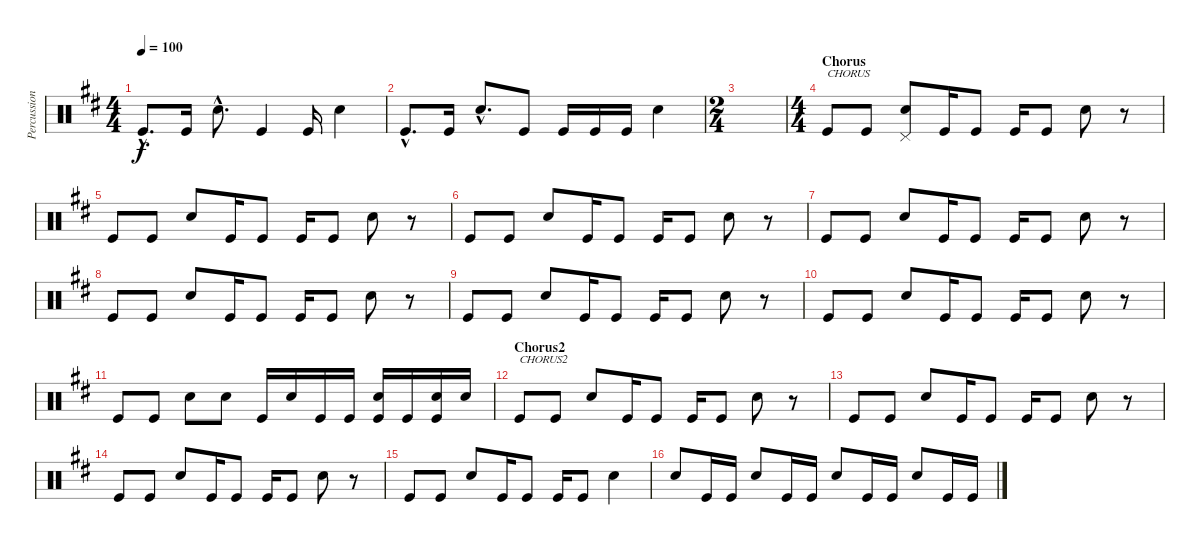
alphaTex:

\track ("Percussion" "Percussion") {instrument percussion}
\staff {score}
\articulation defaults
\ts (4 4)
\tempo 100
\clef neutral
\ks d "Kick (hit)"{hac}.8{d dy f} "Kick (hit)".16 "Electric Snare (hit)"{hac}.8{d} "Kick (hit)".4 "Kick (hit)".16 "Electric Snare (hit)".4
|
"Kick (hit)"{hac}.8{d} "Kick (hit)".16 "Electric Snare (hit)"{hac}.8{d} "Kick (hit)".8 "Kick (hit)".16 "Kick (hit)".16 "Kick (hit)".16 "Electric Snare (hit)".4 |
\ts (2 4)
|
\ts (4 4)
\section ("" "Chorus")
"Kick (hit)".8{txt "CHORUS"} "Kick (hit)".8 ("Pedal Hi-Hat (hit)" "Electric Snare (hit)").8 "Kick (hit)".16 "Kick (hit)".8 "Kick (hit)".16 "Kick (hit)".8 "Electric Snare (hit)".8 r.8 |
"Kick (hit)".8 "Kick (hit)".8 "Electric Snare (hit)".8 "Kick (hit)".16 "Kick (hit)".8 "Kick (hit)".16 "Kick (hit)".8 "Electric Snare (hit)".8 r.8 |
"Kick (hit)".8 "Kick (hit)".8 "Electric Snare (hit)".8 "Kick (hit)".16 "Kick (hit)".8 "Kick (hit)".16 "Kick (hit)".8 "Electric Snare (hit)".8 r.8 |
"Kick (hit)".8 "Kick (hit)".8 "Electric Snare (hit)".8 "Kick (hit)".16 "Kick (hit)".8 "Kick (hit)".16 "Kick (hit)".8 "Electric Snare (hit)".8 r.8 |
"Kick (hit)".8 "Kick (hit)".8 "Electric Snare (hit)".8 "Kick (hit)".16 "Kick (hit)".8 "Kick (hit)".16 "Kick (hit)".8 "Electric Snare (hit)".8 r.8 |
"Kick (hit)".8 "Kick (hit)".8 "Electric Snare (hit)".8 "Kick (hit)".16 "Kick (hit)".8 "Kick (hit)".16 "Kick (hit)".8 "Electric Snare (hit)".8 r.8 |
"Kick (hit)".8 "Kick (hit)".8 "Electric Snare (hit)".8 "Kick (hit)".16 "Kick (hit)".8 "Kick (hit)".16 "Kick (hit)".8 "Electric Snare (hit)".8 r.8 |
"Kick (hit)".8 "Kick (hit)".8 "Electric Snare (hit)".8 "Electric Snare (hit)".8 "Kick (hit)".16 "Electric Snare (hit)".16 "Kick (hit)".16 "Kick (hit)".16 ("Electric Snare (hit)" "Kick (hit)").16 "Kick (hit)".16 ("Electric Snare (hit)" "Kick (hit)").16 "Electric Snare (hit)".16 |
\section ("" "Chorus2")
"Kick (hit)".8{txt "CHORUS2"} "Kick (hit)".8 "Electric Snare (hit)".8 "Kick (hit)".16 "Kick (hit)".8 "Kick (hit)".16 "Kick (hit)".8 "Electric Snare (hit)".8 r.8 |
"Kick (hit)".8 "Kick (hit)".8 "Electric Snare (hit)".8 "Kick (hit)".16 "Kick (hit)".8 "Kick (hit)".16 "Kick (hit)".8 "Electric Snare (hit)".8 r.8 |
"Kick (hit)".8 "Kick (hit)".8 "Electric Snare (hit)".8 "Kick (hit)".16 "Kick (hit)".8 "Kick (hit)".16 "Kick (hit)".8 "Electric Snare (hit)".8 r.8 |
"Kick (hit)".8 "Kick (hit)".8 "Electric Snare (hit)".8 "Kick (hit)".16 "Kick (hit)".8 "Kick (hit)".16 "Kick (hit)".8 "Electric Snare (hit)".4 |
"Electric Snare (hit)".8 "Kick (hit)".16 "Kick (hit)".16 "Electric Snare (hit)".8 "Kick (hit)".16 "Kick (hit)".16 "Electric Snare (hit)".8 "Kick (hit)".16 "Kick (hit)".16 "Electric Snare (hit)".8 "Kick (hit)".16 "Kick (hit)".16
